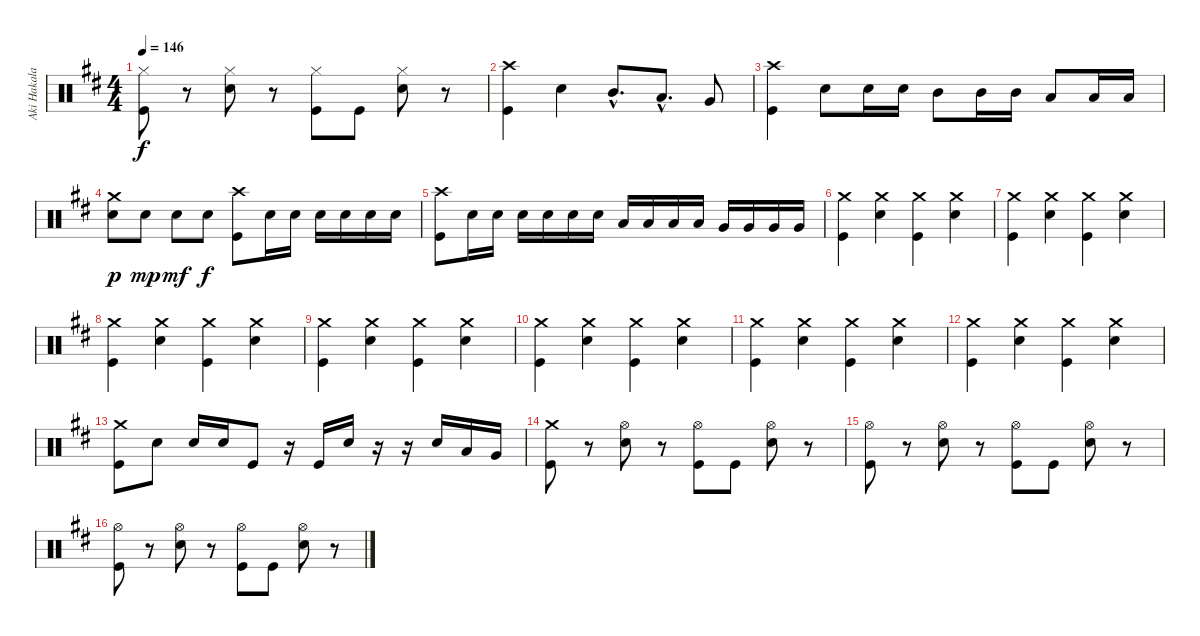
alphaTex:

\track ("Aki Hakala" "Aki Hakala") {instrument percussion}
\staff {score}
\articulation defaults
\ts (4 4)
\tempo 146
\clef neutral
\ks d
("Hi-Hat (closed)" "Kick (hit)").8{dy f} r.8 ("Hi-Hat (closed)" "Electric Snare (hit)").8 r.8 ("Hi-Hat (closed)" "Kick (hit)").8 "Kick (hit)".8 ("Hi-Hat (closed)" "Electric Snare (hit)").8 r.8 |
("Crash high (hit)" "Kick (hit)").4 "Electric Snare (hit)".4 "Mid Tom (hit)"{hac}.8{d} "Low Tom (hit)"{hac}.8{d} "Very Low Tom (hit)".8 |
("Crash high (hit)" "Kick (hit)").4 "Electric Snare (hit)".8 "Electric Snare (hit)".16 "Electric Snare (hit)".16 "Mid Tom (hit)".8 "Mid Tom (hit)".16 "Mid Tom (hit)".16 "Low Tom (hit)".8 "Low Tom (hit)".16 "Low Tom (hit)".16 |
("Crash medium (hit)" "Electric Snare (hit)").8{dy p} "Electric Snare (hit)".8{dy mp} "Electric Snare (hit)".8{dy mf} "Electric Snare (hit)".8{dy f} ("Crash high (hit)" "Kick (hit)").8 "Electric Snare (hit)".16 "Electric Snare (hit)".16 "Electric Snare (hit)".16 "Electric Snare (hit)".16 "Electric Snare (hit)".16 "Electric Snare (hit)".16 |
("Crash high (hit)" "Kick (hit)").8 "Electric Snare (hit)".16 "Electric Snare (hit)".16 "Electric Snare (hit)".16 "Electric Snare (hit)".16 "Electric Snare (hit)".16 "Electric Snare (hit)".16 "Low Tom (hit)".16 "Low Tom (hit)".16 "Low Tom (hit)".16 "Low Tom (hit)".16 "Very Low Tom (hit)".16 "Very Low Tom (hit)".16 "Very Low Tom (hit)".16 "Very Low Tom (hit)".16 |
("Crash medium (hit)" "Kick (hit)").4 ("Crash medium (hit)" "Electric Snare (hit)").4 ("Crash medium (hit)" "Kick (hit)").4 ("Crash medium (hit)" "Electric Snare (hit)").4 |
("Crash medium (hit)" "Kick (hit)").4 ("Crash medium (hit)" "Electric Snare (hit)").4 ("Crash medium (hit)" "Kick (hit)").4 ("Crash medium (hit)" "Electric Snare (hit)").4 |
("Crash medium (hit)" "Kick (hit)").4 ("Crash medium (hit)" "Electric Snare (hit)").4 ("Crash medium (hit)" "Kick (hit)").4 ("Crash medium (hit)" "Electric Snare (hit)").4 |
("Crash medium (hit)" "Kick (hit)").4 ("Crash medium (hit)" "Electric Snare (hit)").4 ("Crash medium (hit)" "Kick (hit)").4 ("Crash medium (hit)" "Electric Snare (hit)").4 |
("Crash medium (hit)" "Kick (hit)").4 ("Crash medium (hit)" "Electric Snare (hit)").4 ("Crash medium (hit)" "Kick (hit)").4 ("Crash medium (hit)" "Electric Snare (hit)").4 |
("Crash medium (hit)" "Kick (hit)").4 ("Crash medium (hit)" "Electric Snare (hit)").4 ("Crash medium (hit)" "Kick (hit)").4 ("Crash medium (hit)" "Electric Snare (hit)").4 |
("Crash medium (hit)" "Kick (hit)").4 ("Crash medium (hit)" "Electric Snare (hit)").4 ("Crash medium (hit)" "Kick (hit)").4 ("Crash medium (hit)" "Electric Snare (hit)").4 |
("Crash medium (hit)" "Kick (hit)").8 "Electric Snare (hit)".8 "Electric Snare (hit)".16 "Electric Snare (hit)".16 "Kick (hit)".8 r.16 "Kick (hit)".16 "Electric Snare (hit)".16 r.16 r.16 "Electric Snare (hit)".16 "Low Tom (hit)".16 "Very Low Tom (hit)".16 |
("Crash medium (hit)" "Kick (hit)").8 r.8 ("Hi-Hat (open)" "Electric Snare (hit)").8 r.8 ("Hi-Hat (open)" "Kick (hit)").8 "Kick (hit)".8 ("Hi-Hat (open)" "Electric Snare (hit)").8 r.8 |
("Hi-Hat (open)" "Kick (hit)").8 r.8 ("Hi-Hat (open)" "Electric Snare (hit)").8 r.8 ("Hi-Hat (open)" "Kick (hit)").8 "Kick (hit)".8 ("Hi-Hat (open)" "Electric Snare (hit)").8 r.8 |
("Hi-Hat (open)" "Kick (hit)").8 r.8 ("Hi-Hat (open)" "Electric Snare (hit)").8 r.8 ("Hi-Hat (open)" "Kick (hit)").8 "Kick (hit)".8 ("Hi-Hat (open)" "Electric Snare (hit)").8 r.8
